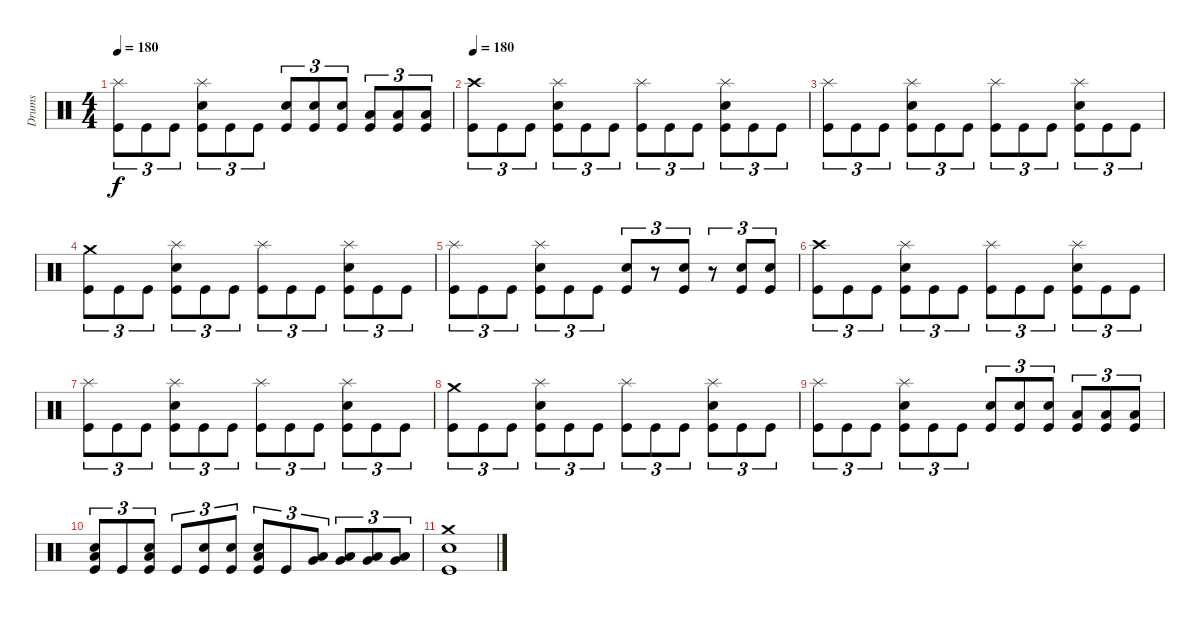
\track ("Drums" "Drums") {instrument percussion}
\staff {score}
\articulation defaults
\ts (4 4)
\tempo 180
\clef neutral
\ks c
("Splash (hit)" "Kick (hit)").8{tu (3 2) dy f} "Kick (hit)".8{tu (3 2)} "Kick (hit)".8{tu (3 2)} ("Splash (hit)" "Electric Snare (hit)" "Kick (hit)").8{tu (3 2)} "Kick (hit)".8{tu (3 2)} "Kick (hit)".8{tu (3 2)} ("Electric Snare (hit)" "Kick (hit)").8{tu (3 2)} ("Electric Snare (hit)" "Kick (hit)").8{tu (3 2)} ("Electric Snare (hit)" "Kick (hit)").8{tu (3 2)} ("Low Floor Tom (hit)" "Kick (hit)").8{tu (3 2)} ("Low Floor Tom (hit)" "Kick (hit)").8{tu (3 2)} ("Low Floor Tom (hit)" "Kick (hit)").8{tu (3 2)} |
\tempo 180
("Crash high (hit)" "Kick (hit)").8{tu (3 2)} "Kick (hit)".8{tu (3 2)} "Kick (hit)".8{tu (3 2)} ("Splash (hit)" "Electric Snare (hit)" "Kick (hit)").8{tu (3 2)} "Kick (hit)".8{tu (3 2)} "Kick (hit)".8{tu (3 2)} ("Splash (hit)" "Kick (hit)").8{tu (3 2)} "Kick (hit)".8{tu (3 2)} "Kick (hit)".8{tu (3 2)} ("Splash (hit)" "Electric Snare (hit)" "Kick (hit)").8{tu (3 2)} "Kick (hit)".8{tu (3 2)} "Kick (hit)".8{tu (3 2)} |
("Splash (hit)" "Kick (hit)").8{tu (3 2)} "Kick (hit)".8{tu (3 2)} "Kick (hit)".8{tu (3 2)} ("Splash (hit)" "Electric Snare (hit)" "Kick (hit)").8{tu (3 2)} "Kick (hit)".8{tu (3 2)} "Kick (hit)".8{tu (3 2)} ("Splash (hit)" "Kick (hit)").8{tu (3 2)} "Kick (hit)".8{tu (3 2)} "Kick (hit)".8{tu (3 2)} ("Splash (hit)" "Electric Snare (hit)" "Kick (hit)").8{tu (3 2)} "Kick (hit)".8{tu (3 2)} "Kick (hit)".8{tu (3 2)} |
("Crash medium (hit)" "Kick (hit)").8{tu (3 2)} "Kick (hit)".8{tu (3 2)} "Kick (hit)".8{tu (3 2)} ("Splash (hit)" "Electric Snare (hit)" "Kick (hit)").8{tu (3 2)} "Kick (hit)".8{tu (3 2)} "Kick (hit)".8{tu (3 2)} ("Splash (hit)" "Kick (hit)").8{tu (3 2)} "Kick (hit)".8{tu (3 2)} "Kick (hit)".8{tu (3 2)} ("Splash (hit)" "Electric Snare (hit)" "Kick (hit)").8{tu (3 2)} "Kick (hit)".8{tu (3 2)} "Kick (hit)".8{tu (3 2)} |
("Splash (hit)" "Kick (hit)").8{tu (3 2)} "Kick (hit)".8{tu (3 2)} "Kick (hit)".8{tu (3 2)} ("Splash (hit)" "Electric Snare (hit)" "Kick (hit)").8{tu (3 2)} "Kick (hit)".8{tu (3 2)} "Kick (hit)".8{tu (3 2)} ("Electric Snare (hit)" "Kick (hit)").8{tu (3 2)} r.8{tu (3 2)} ("Electric Snare (hit)" "Kick (hit)").8{tu (3 2)} r.8{tu (3 2)} ("Electric Snare (hit)" "Kick (hit)").8{tu (3 2)} ("Electric Snare (hit)" "Kick (hit)").8{tu (3 2)} |
("Crash high (hit)" "Kick (hit)").8{tu (3 2)} "Kick (hit)".8{tu (3 2)} "Kick (hit)".8{tu (3 2)} ("Splash (hit)" "Electric Snare (hit)" "Kick (hit)").8{tu (3 2)} "Kick (hit)".8{tu (3 2)} "Kick (hit)".8{tu (3 2)} ("Splash (hit)" "Kick (hit)").8{tu (3 2)} "Kick (hit)".8{tu (3 2)} "Kick (hit)".8{tu (3 2)} ("Splash (hit)" "Electric Snare (hit)" "Kick (hit)").8{tu (3 2)} "Kick (hit)".8{tu (3 2)} "Kick (hit)".8{tu (3 2)} |
("Splash (hit)" "Kick (hit)").8{tu (3 2)} "Kick (hit)".8{tu (3 2)} "Kick (hit)".8{tu (3 2)} ("Splash (hit)" "Electric Snare (hit)" "Kick (hit)").8{tu (3 2)} "Kick (hit)".8{tu (3 2)} "Kick (hit)".8{tu (3 2)} ("Splash (hit)" "Kick (hit)").8{tu (3 2)} "Kick (hit)".8{tu (3 2)} "Kick (hit)".8{tu (3 2)} ("Splash (hit)" "Electric Snare (hit)" "Kick (hit)").8{tu (3 2)} "Kick (hit)".8{tu (3 2)} "Kick (hit)".8{tu (3 2)} |
("Crash medium (hit)" "Kick (hit)").8{tu (3 2)} "Kick (hit)".8{tu (3 2)} "Kick (hit)".8{tu (3 2)} ("Splash (hit)" "Electric Snare (hit)" "Kick (hit)").8{tu (3 2)} "Kick (hit)".8{tu (3 2)} "Kick (hit)".8{tu (3 2)} ("Splash (hit)" "Kick (hit)").8{tu (3 2)} "Kick (hit)".8{tu (3 2)} "Kick (hit)".8{tu (3 2)} ("Splash (hit)" "Electric Snare (hit)" "Kick (hit)").8{tu (3 2)} "Kick (hit)".8{tu (3 2)} "Kick (hit)".8{tu (3 2)} |
("Splash (hit)" "Kick (hit)").8{tu (3 2)} "Kick (hit)".8{tu (3 2)} "Kick (hit)".8{tu (3 2)} ("Splash (hit)" "Electric Snare (hit)" "Kick (hit)").8{tu (3 2)} "Kick (hit)".8{tu (3 2)} "Kick (hit)".8{tu (3 2)} ("Electric Snare (hit)" "Kick (hit)").8{tu (3 2)} ("Electric Snare (hit)" "Kick (hit)").8{tu (3 2)} ("Electric Snare (hit)" "Kick (hit)").8{tu (3 2)} ("Low Floor Tom (hit)" "Kick (hit)").8{tu (3 2)} ("Low Floor Tom (hit)" "Kick (hit)").8{tu (3 2)} ("Low Floor Tom (hit)" "Kick (hit)").8{tu (3 2)} |
("Low Floor Tom (hit)" "Electric Snare (hit)" "Kick (hit)").8{tu (3 2)} "Kick (hit)".8{tu (3 2)} ("Low Floor Tom (hit)" "Electric Snare (hit)" "Kick (hit)").8{tu (3 2)} "Kick (hit)".8{tu (3 2)} ("Electric Snare (hit)" "Kick (hit)").8{tu (3 2)} ("Electric Snare (hit)" "Kick (hit)").8{tu (3 2)} ("Low Floor Tom (hit)" "Electric Snare (hit)" "Kick (hit)").8{tu (3 2)} "Kick (hit)".8{tu (3 2)} ("Low Tom (hit)" "Very Low Tom (hit)").8{tu (3 2)} ("Low Tom (hit)" "Very Low Tom (hit)").8{tu (3 2)} ("Very Low Tom (hit)" "Low Floor Tom (hit)").8{tu (3 2)} ("Very Low Tom (hit)" "Low Floor Tom (hit)").8{tu (3 2)} |
("Crash medium (hit)" "Electric Snare (hit)" "Kick (hit)").1
